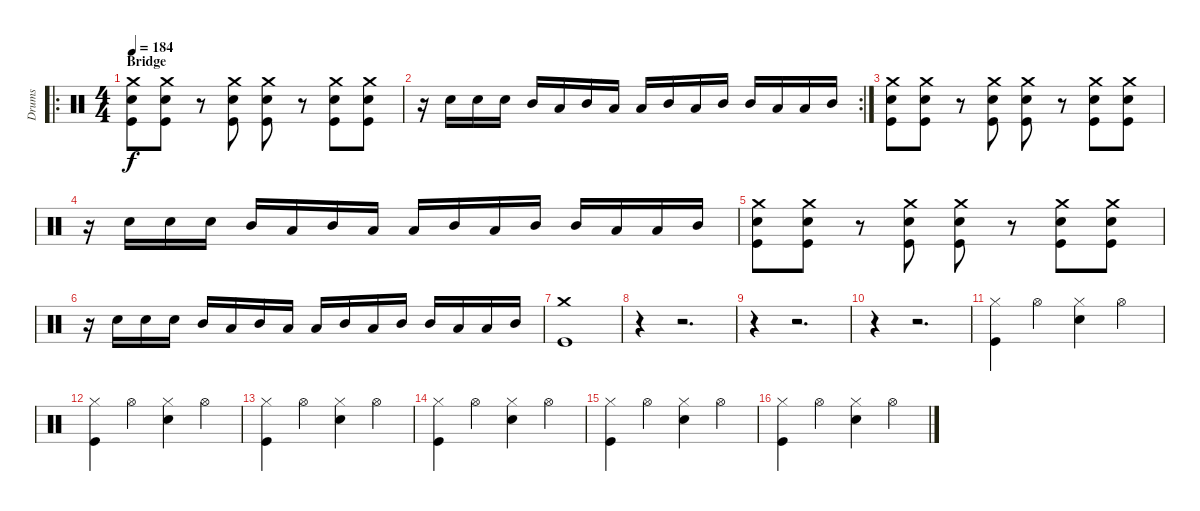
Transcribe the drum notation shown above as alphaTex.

\track ("Drums" "Drums") {instrument percussion}
\staff {score}
\articulation defaults
\ro
\ts (4 4)
\section ("" "Bridge")
\tempo 184
\clef neutral
\ks c
("Crash medium (hit)" "Snare (hit) 2" "Kick (hit)").8{dy f} ("Crash medium (hit)" "Snare (hit) 2" "Kick (hit)").8 r.8 ("Crash medium (hit)" "Snare (hit) 2" "Kick (hit)").8 ("Crash medium (hit)" "Snare (hit) 2" "Kick (hit)").8 r.8 ("Crash medium (hit)" "Snare (hit) 2" "Kick (hit)").8 ("Crash medium (hit)" "Snare (hit) 2" "Kick (hit)").8 |
\rc 2
r.16 "Snare (hit) 2".16 "Snare (hit) 2".16 "Snare (hit) 2".16 "Mid Tom (hit)".16 "Low Tom (hit)".16 "Mid Tom (hit)".16 "Low Tom (hit)".16 "Low Tom (hit)".16 "Mid Tom (hit)".16 "Low Tom (hit)".16 "Mid Tom (hit)".16 "Mid Tom (hit)".16 "Low Tom (hit)".16 "Low Tom (hit)".16 "Mid Tom (hit)".16 |
("Crash medium (hit)" "Snare (hit) 2" "Kick (hit)").8 ("Crash medium (hit)" "Snare (hit) 2" "Kick (hit)").8 r.8 ("Crash medium (hit)" "Snare (hit) 2" "Kick (hit)").8 ("Crash medium (hit)" "Snare (hit) 2" "Kick (hit)").8 r.8 ("Crash medium (hit)" "Snare (hit) 2" "Kick (hit)").8 ("Crash medium (hit)" "Snare (hit) 2" "Kick (hit)").8 |
r.16 "Snare (hit) 2".16 "Snare (hit) 2".16 "Snare (hit) 2".16 "Mid Tom (hit)".16 "Low Tom (hit)".16 "Mid Tom (hit)".16 "Low Tom (hit)".16 "Low Tom (hit)".16 "Mid Tom (hit)".16 "Low Tom (hit)".16 "Mid Tom (hit)".16 "Mid Tom (hit)".16 "Low Tom (hit)".16 "Low Tom (hit)".16 "Mid Tom (hit)".16 |
("Crash medium (hit)" "Snare (hit) 2" "Kick (hit)").8 ("Crash medium (hit)" "Snare (hit) 2" "Kick (hit)").8 r.8 ("Crash medium (hit)" "Snare (hit) 2" "Kick (hit)").8 ("Crash medium (hit)" "Snare (hit) 2" "Kick (hit)").8 r.8 ("Crash medium (hit)" "Snare (hit) 2" "Kick (hit)").8 ("Crash medium (hit)" "Snare (hit) 2" "Kick (hit)").8 |
r.16 "Snare (hit) 2".16 "Snare (hit) 2".16 "Snare (hit) 2".16 "Mid Tom (hit)".16 "Low Tom (hit)".16 "Mid Tom (hit)".16 "Low Tom (hit)".16 "Low Tom (hit)".16 "Mid Tom (hit)".16 "Low Tom (hit)".16 "Mid Tom (hit)".16 "Mid Tom (hit)".16 "Low Tom (hit)".16 "Low Tom (hit)".16 "Mid Tom (hit)".16 |
("Crash medium (hit)" "Kick (hit)").1 |
r.4 r.2{d} |
r.4 r.2{d} |
r.4 r.2{d} |
("Hi-Hat (closed)" "Kick (hit)").4 "Hi-Hat (open)".4 ("Hi-Hat (closed)" "Snare (hit) 2").4 "Hi-Hat (open)".4 |
("Hi-Hat (closed)" "Kick (hit)").4 "Hi-Hat (open)".4 ("Hi-Hat (closed)" "Snare (hit) 2").4 "Hi-Hat (open)".4 |
("Hi-Hat (closed)" "Kick (hit)").4 "Hi-Hat (open)".4 ("Hi-Hat (closed)" "Snare (hit) 2").4 "Hi-Hat (open)".4 |
("Hi-Hat (closed)" "Kick (hit)").4 "Hi-Hat (open)".4 ("Hi-Hat (closed)" "Snare (hit) 2").4 "Hi-Hat (open)".4 |
("Hi-Hat (closed)" "Kick (hit)").4 "Hi-Hat (open)".4 ("Hi-Hat (closed)" "Snare (hit) 2").4 "Hi-Hat (open)".4 |
("Hi-Hat (closed)" "Kick (hit)").4 "Hi-Hat (open)".4 ("Hi-Hat (closed)" "Snare (hit) 2").4 "Hi-Hat (open)".4
